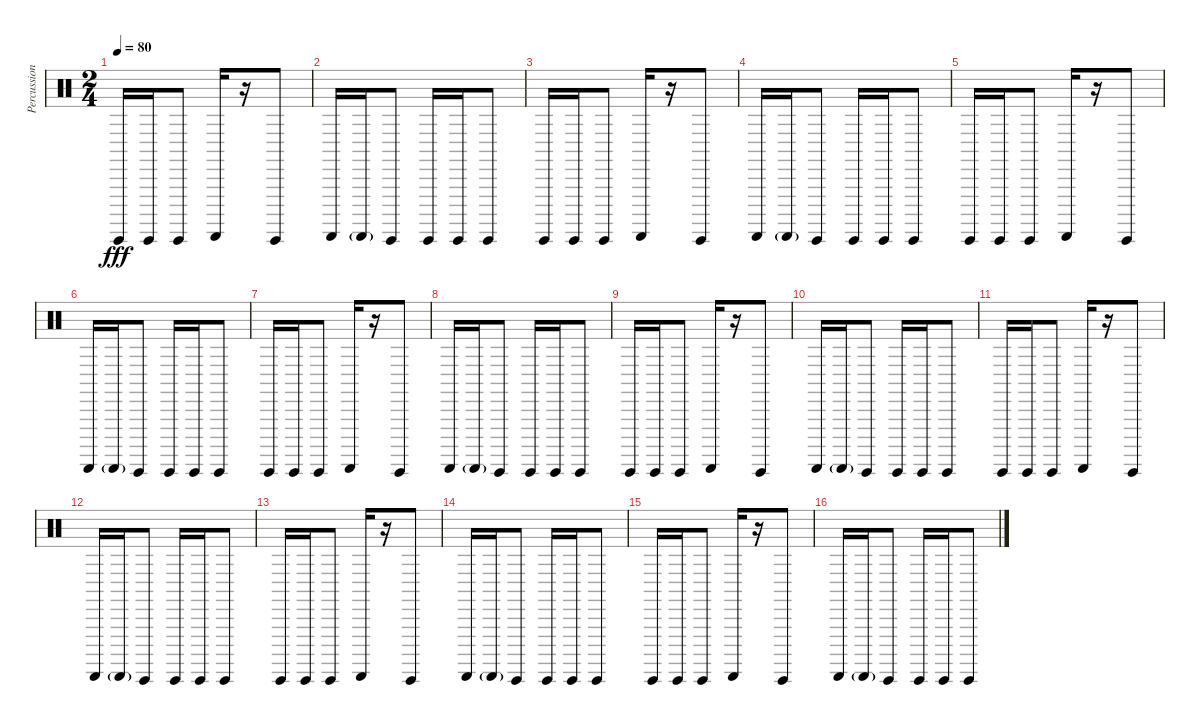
\track ("Percussions" "Percussion") {instrument percussion}
\staff {score}
\articulation defaults
\ts (2 4)
\tempo 80
\clef neutral
\ks c "Guiro (hit)".16{dy fff} "Guiro (hit)".16 "Guiro (hit)".8 "Guiro (scrap-return)".16
r.16 "Guiro (hit)".8 |
"Guiro (scrap-return)".16 "Guiro (scrap-return)"{g}.16 "Guiro (hit)".8 "Guiro (hit)".16 "Guiro (hit)".16 "Guiro (hit)".8 |
"Guiro (hit)".16 "Guiro (hit)".16 "Guiro (hit)".8 "Guiro (scrap-return)".16 r.16 "Guiro (hit)".8 |
"Guiro (scrap-return)".16 "Guiro (scrap-return)"{g}.16 "Guiro (hit)".8 "Guiro (hit)".16 "Guiro (hit)".16 "Guiro (hit)".8 |
"Guiro (hit)".16 "Guiro (hit)".16 "Guiro (hit)".8 "Guiro (scrap-return)".16 r.16 "Guiro (hit)".8 |
"Guiro (scrap-return)".16 "Guiro (scrap-return)"{g}.16 "Guiro (hit)".8 "Guiro (hit)".16 "Guiro (hit)".16 "Guiro (hit)".8 |
"Guiro (hit)".16 "Guiro (hit)".16 "Guiro (hit)".8 "Guiro (scrap-return)".16 r.16 "Guiro (hit)".8 |
"Guiro (scrap-return)".16 "Guiro (scrap-return)"{g}.16 "Guiro (hit)".8 "Guiro (hit)".16 "Guiro (hit)".16 "Guiro (hit)".8 |
"Guiro (hit)".16 "Guiro (hit)".16 "Guiro (hit)".8 "Guiro (scrap-return)".16 r.16 "Guiro (hit)".8 |
"Guiro (scrap-return)".16 "Guiro (scrap-return)"{g}.16 "Guiro (hit)".8 "Guiro (hit)".16 "Guiro (hit)".16 "Guiro (hit)".8 |
"Guiro (hit)".16 "Guiro (hit)".16 "Guiro (hit)".8 "Guiro (scrap-return)".16 r.16 "Guiro (hit)".8 |
"Guiro (scrap-return)".16 "Guiro (scrap-return)"{g}.16 "Guiro (hit)".8 "Guiro (hit)".16 "Guiro (hit)".16 "Guiro (hit)".8 |
"Guiro (hit)".16 "Guiro (hit)".16 "Guiro (hit)".8 "Guiro (scrap-return)".16 r.16 "Guiro (hit)".8 |
"Guiro (scrap-return)".16 "Guiro (scrap-return)"{g}.16 "Guiro (hit)".8 "Guiro (hit)".16 "Guiro (hit)".16 "Guiro (hit)".8 |
"Guiro (hit)".16 "Guiro (hit)".16 "Guiro (hit)".8 "Guiro (scrap-return)".16 r.16 "Guiro (hit)".8 |
"Guiro (scrap-return)".16 "Guiro (scrap-return)"{g}.16 "Guiro (hit)".8 "Guiro (hit)".16 "Guiro (hit)".16 "Guiro (hit)".8
